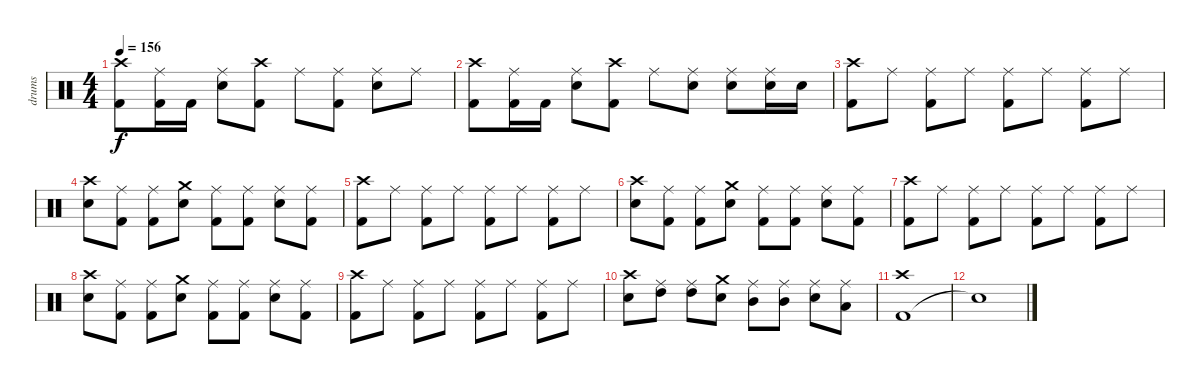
\track ("drums" "drums") {instrument percussion}
\staff {score}
\articulation defaults
\ts (4 4)
\tempo 156
\clef neutral
\ks c
("Kick (hit) 2" "Crash high (hit)").8{dy f} ("Ride (middle)" "Kick (hit) 2").16 "Kick (hit) 2".16 ("Electric Snare (hit)" "Ride (middle)").8 ("Crash high (hit)" "Kick (hit) 2").8 "Ride (middle)".8 ("Ride (middle)" "Kick (hit) 2").8 ("Electric Snare (hit)" "Ride (middle)").8 "Ride (middle)".8 |
("Kick (hit) 2" "Crash high (hit)").8 ("Ride (middle)" "Kick (hit) 2").16 "Kick (hit) 2".16 ("Electric Snare (hit)" "Ride (middle)").8 ("Crash high (hit)" "Kick (hit) 2").8 "Ride (middle)".8 ("Ride (middle)" "Electric Snare (hit)").8 ("Electric Snare (hit)" "Ride (middle)").8 ("Ride (middle)" "Electric Snare (hit)").16 "Electric Snare (hit)".16 |
("Kick (hit) 2" "Crash high (hit)").8 "Ride (middle)".8 ("Kick (hit) 2" "Ride (middle)").8 "Ride (middle)".8 ("Kick (hit) 2" "Ride (middle)").8 "Ride (middle)".8 ("Kick (hit) 2" "Ride (middle)").8 "Ride (middle)".8 |
("Electric Snare (hit)" "Crash high (hit)").8 ("Ride (middle)" "Kick (hit) 2").8 ("Kick (hit) 2" "Ride (middle)").8 ("Crash medium (hit)" "Electric Snare (hit)").8 ("Kick (hit) 2" "Ride (middle)").8 ("Ride (middle)" "Kick (hit) 2").8 ("Electric Snare (hit)" "Ride (middle)").8 ("Ride (middle)" "Kick (hit) 2").8 |
("Kick (hit) 2" "Crash high (hit)").8 "Ride (middle)".8 ("Kick (hit) 2" "Ride (middle)").8 "Ride (middle)".8 ("Kick (hit) 2" "Ride (middle)").8 "Ride (middle)".8 ("Kick (hit) 2" "Ride (middle)").8 "Ride (middle)".8 |
("Electric Snare (hit)" "Crash high (hit)").8 ("Ride (middle)" "Kick (hit) 2").8 ("Kick (hit) 2" "Ride (middle)").8 ("Crash medium (hit)" "Electric Snare (hit)").8 ("Kick (hit) 2" "Ride (middle)").8 ("Ride (middle)" "Kick (hit) 2").8 ("Electric Snare (hit)" "Ride (middle)").8 ("Ride (middle)" "Kick (hit) 2").8 |
("Kick (hit) 2" "Crash high (hit)").8 "Ride (middle)".8 ("Kick (hit) 2" "Ride (middle)").8 "Ride (middle)".8 ("Kick (hit) 2" "Ride (middle)").8 "Ride (middle)".8 ("Kick (hit) 2" "Ride (middle)").8 "Ride (middle)".8 |
("Electric Snare (hit)" "Crash high (hit)").8 ("Ride (middle)" "Kick (hit) 2").8 ("Kick (hit) 2" "Ride (middle)").8 ("Crash medium (hit)" "Electric Snare (hit)").8 ("Kick (hit) 2" "Ride (middle)").8 ("Ride (middle)" "Kick (hit) 2").8 ("Electric Snare (hit)" "Ride (middle)").8 ("Ride (middle)" "Kick (hit) 2").8 |
("Kick (hit) 2" "Crash high (hit)").8 "Ride (middle)".8 ("Kick (hit) 2" "Ride (middle)").8 "Ride (middle)".8 ("Kick (hit) 2" "Ride (middle)").8 "Ride (middle)".8 ("Kick (hit) 2" "Ride (middle)").8 "Ride (middle)".8 |
("Electric Snare (hit)" "Crash high (hit)").8 ("Ride (middle)" "High Tom (hit)").8 ("High Tom (hit)" "Ride (middle)").8 ("Crash medium (hit)" "Electric Snare (hit)").8 ("Mid Tom (hit)" "Ride (middle)").8 ("Ride (middle)" "Mid Tom (hit)").8 ("Electric Snare (hit)" "Ride (middle)").8 ("Ride (middle)" "Low Tom (hit)").8 |
("Kick (hit) 2" "Crash high (hit)").1 |
"Snare (hit)"{t}.1
